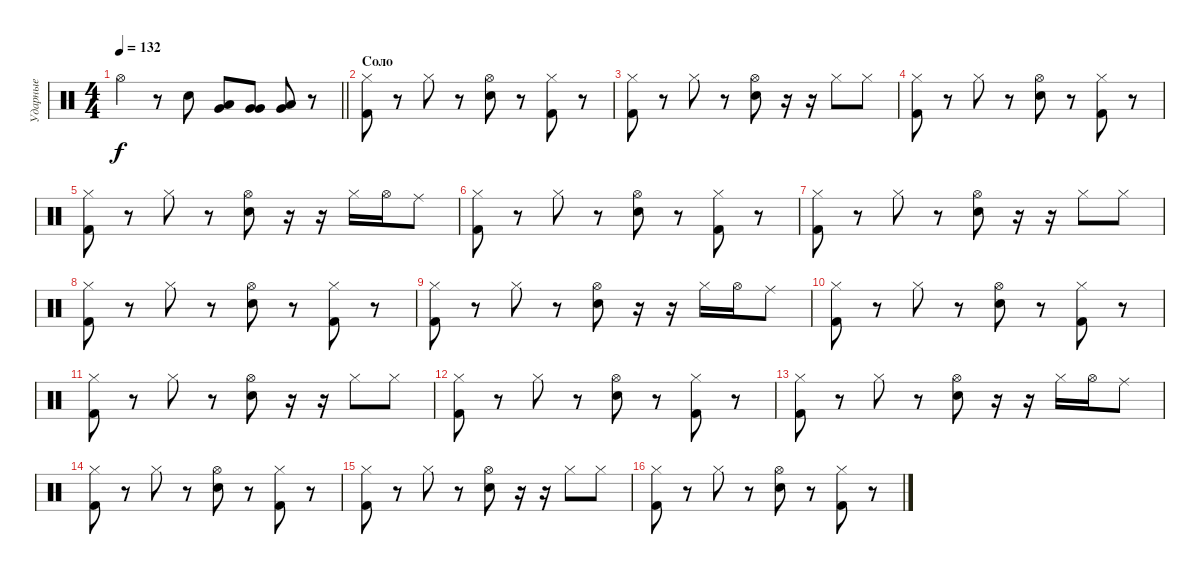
\track ("Ударные" "Ударные") {instrument percussion}
\staff {score}
\articulation defaults
\ts (4 4)
\tempo 132
\clef neutral
\barLineRight lightlight
\ks c "Hi-Hat (open)".4{dy f}
r.8 "Snare (hit) 2".8 ("Very Low Tom (hit)" "Low Tom (hit)").8 ("Very Low Tom (hit)" "Very Low Tom (hit)").8 ("Very Low Tom (hit)" "Low Floor Tom (hit)").8 r.8 |
\section ("" "Соло")
("Kick (hit) 2" "Hi-Hat (closed)").8 r.8 "Hi-Hat (closed)".8 r.8 ("Snare (hit) 2" "Hi-Hat (open)").8 r.8 ("Kick (hit) 2" "Hi-Hat (closed)").8 r.8 |
("Kick (hit) 2" "Hi-Hat (closed)").8 r.8 "Hi-Hat (closed)".8 r.8 ("Snare (hit) 2" "Hi-Hat (open)").8 r.16 r.16 "Hi-Hat (closed)".8 "Hi-Hat (closed)".8 |
("Kick (hit) 2" "Hi-Hat (closed)").8 r.8 "Hi-Hat (closed)".8 r.8 ("Snare (hit) 2" "Hi-Hat (open)").8 r.8 ("Kick (hit) 2" "Hi-Hat (closed)").8 r.8 |
("Kick (hit) 2" "Hi-Hat (closed)").8 r.8 "Hi-Hat (closed)".8 r.8 ("Snare (hit) 2" "Hi-Hat (open)").8 r.16 r.16 "Hi-Hat (closed)".16 "Hi-Hat (open)".16 "Ride (middle)".8 |
("Kick (hit) 2" "Hi-Hat (closed)").8 r.8 "Hi-Hat (closed)".8 r.8 ("Snare (hit) 2" "Hi-Hat (open)").8 r.8 ("Kick (hit) 2" "Hi-Hat (closed)").8 r.8 |
("Kick (hit) 2" "Hi-Hat (closed)").8 r.8 "Hi-Hat (closed)".8 r.8 ("Snare (hit) 2" "Hi-Hat (open)").8 r.16 r.16 "Hi-Hat (closed)".8 "Hi-Hat (closed)".8 |
("Kick (hit) 2" "Hi-Hat (closed)").8 r.8 "Hi-Hat (closed)".8 r.8 ("Snare (hit) 2" "Hi-Hat (open)").8 r.8 ("Kick (hit) 2" "Hi-Hat (closed)").8 r.8 |
("Kick (hit) 2" "Hi-Hat (closed)").8 r.8 "Hi-Hat (closed)".8 r.8 ("Snare (hit) 2" "Hi-Hat (open)").8 r.16 r.16 "Hi-Hat (closed)".16 "Hi-Hat (open)".16 "Ride (middle)".8 |
("Kick (hit) 2" "Hi-Hat (closed)").8 r.8 "Hi-Hat (closed)".8 r.8 ("Snare (hit) 2" "Hi-Hat (open)").8 r.8 ("Kick (hit) 2" "Hi-Hat (closed)").8 r.8 |
("Kick (hit) 2" "Hi-Hat (closed)").8 r.8 "Hi-Hat (closed)".8 r.8 ("Snare (hit) 2" "Hi-Hat (open)").8 r.16 r.16 "Hi-Hat (closed)".8 "Hi-Hat (closed)".8 |
("Kick (hit) 2" "Hi-Hat (closed)").8 r.8 "Hi-Hat (closed)".8 r.8 ("Snare (hit) 2" "Hi-Hat (open)").8 r.8 ("Kick (hit) 2" "Hi-Hat (closed)").8 r.8 |
("Kick (hit) 2" "Hi-Hat (closed)").8 r.8 "Hi-Hat (closed)".8 r.8 ("Snare (hit) 2" "Hi-Hat (open)").8 r.16 r.16 "Hi-Hat (closed)".16 "Hi-Hat (open)".16 "Ride (middle)".8 |
("Kick (hit) 2" "Hi-Hat (closed)").8 r.8 "Hi-Hat (closed)".8 r.8 ("Snare (hit) 2" "Hi-Hat (open)").8 r.8 ("Kick (hit) 2" "Hi-Hat (closed)").8 r.8 |
("Kick (hit) 2" "Hi-Hat (closed)").8 r.8 "Hi-Hat (closed)".8 r.8 ("Snare (hit) 2" "Hi-Hat (open)").8 r.16 r.16 "Hi-Hat (closed)".8 "Hi-Hat (closed)".8 |
("Kick (hit) 2" "Hi-Hat (closed)").8 r.8 "Hi-Hat (closed)".8 r.8 ("Snare (hit) 2" "Hi-Hat (open)").8 r.8 ("Kick (hit) 2" "Hi-Hat (closed)").8 r.8
